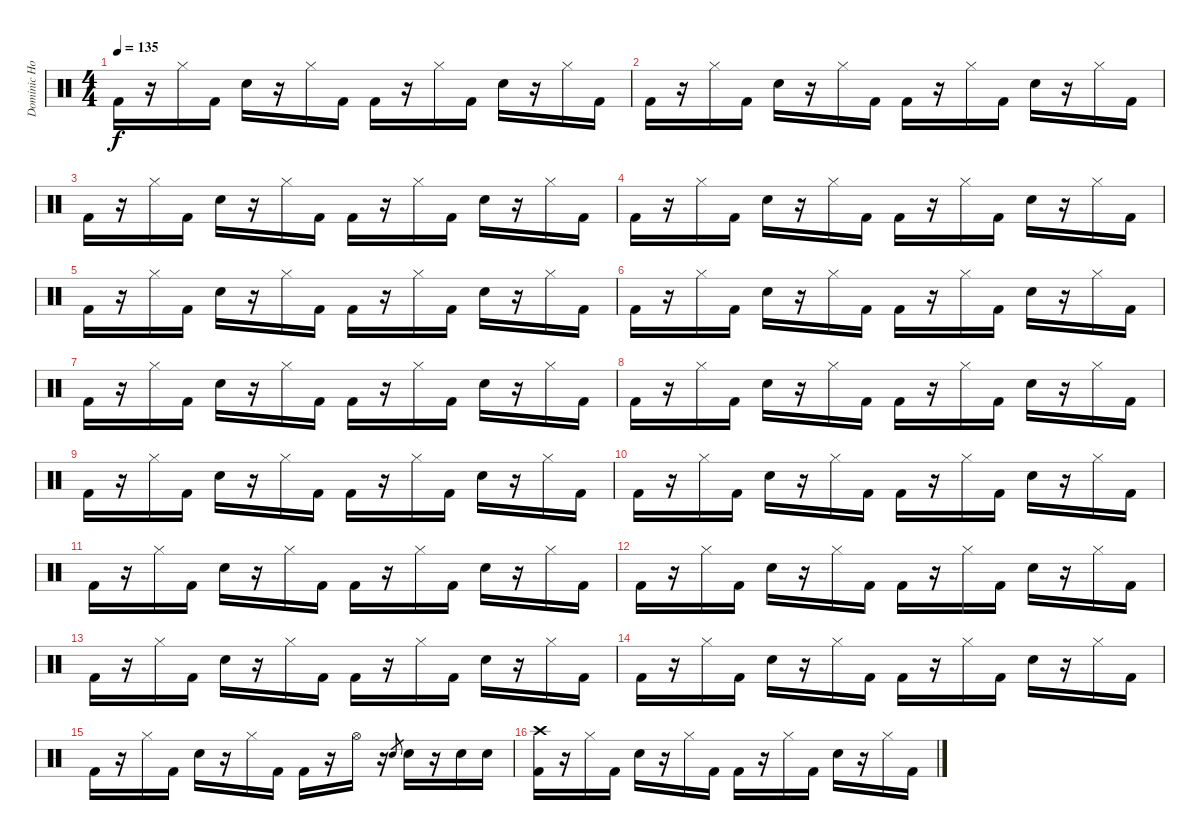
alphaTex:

\track ("Dominic Howard (Drums)" "Dominic Ho") {instrument percussion}
\staff {score}
\articulation defaults
\ts (4 4)
\tempo 135
\clef neutral
\ks c "Kick (hit) 2".16{dy f}
r.16 "Hi-Hat (closed)".16 "Kick (hit) 2".16 "Electric Snare (hit)".16 r.16 "Hi-Hat (closed)".16 "Kick (hit) 2".16 "Kick (hit) 2".16 r.16 "Hi-Hat (closed)".16 "Kick (hit) 2".16 "Electric Snare (hit)".16 r.16 "Hi-Hat (closed)".16 "Kick (hit) 2".16 |
"Kick (hit) 2".16 r.16 "Hi-Hat (closed)".16 "Kick (hit) 2".16 "Electric Snare (hit)".16 r.16 "Hi-Hat (closed)".16 "Kick (hit) 2".16 "Kick (hit) 2".16 r.16 "Hi-Hat (closed)".16 "Kick (hit) 2".16 "Electric Snare (hit)".16 r.16 "Hi-Hat (closed)".16 "Kick (hit) 2".16 |
"Kick (hit) 2".16 r.16 "Hi-Hat (closed)".16 "Kick (hit) 2".16 "Electric Snare (hit)".16 r.16 "Hi-Hat (closed)".16 "Kick (hit) 2".16 "Kick (hit) 2".16 r.16 "Hi-Hat (closed)".16 "Kick (hit) 2".16 "Electric Snare (hit)".16 r.16 "Hi-Hat (closed)".16 "Kick (hit) 2".16 |
"Kick (hit) 2".16 r.16 "Hi-Hat (closed)".16 "Kick (hit) 2".16 "Electric Snare (hit)".16 r.16 "Hi-Hat (closed)".16 "Kick (hit) 2".16 "Kick (hit) 2".16 r.16 "Hi-Hat (closed)".16 "Kick (hit) 2".16 "Electric Snare (hit)".16 r.16 "Hi-Hat (closed)".16 "Kick (hit) 2".16 |
"Kick (hit) 2".16 r.16 "Hi-Hat (closed)".16 "Kick (hit) 2".16 "Electric Snare (hit)".16 r.16 "Hi-Hat (closed)".16 "Kick (hit) 2".16 "Kick (hit) 2".16 r.16 "Hi-Hat (closed)".16 "Kick (hit) 2".16 "Electric Snare (hit)".16 r.16 "Hi-Hat (closed)".16 "Kick (hit) 2".16 |
"Kick (hit) 2".16 r.16 "Hi-Hat (closed)".16 "Kick (hit) 2".16 "Electric Snare (hit)".16 r.16 "Hi-Hat (closed)".16 "Kick (hit) 2".16 "Kick (hit) 2".16 r.16 "Hi-Hat (closed)".16 "Kick (hit) 2".16 "Electric Snare (hit)".16 r.16 "Hi-Hat (closed)".16 "Kick (hit) 2".16 |
"Kick (hit) 2".16 r.16 "Hi-Hat (closed)".16 "Kick (hit) 2".16 "Electric Snare (hit)".16 r.16 "Hi-Hat (closed)".16 "Kick (hit) 2".16 "Kick (hit) 2".16 r.16 "Hi-Hat (closed)".16 "Kick (hit) 2".16 "Electric Snare (hit)".16 r.16 "Hi-Hat (closed)".16 "Kick (hit) 2".16 |
"Kick (hit) 2".16 r.16 "Hi-Hat (closed)".16 "Kick (hit) 2".16 "Electric Snare (hit)".16 r.16 "Hi-Hat (closed)".16 "Kick (hit) 2".16 "Kick (hit) 2".16 r.16 "Hi-Hat (closed)".16 "Kick (hit) 2".16 "Electric Snare (hit)".16 r.16 "Hi-Hat (closed)".16 "Kick (hit) 2".16 |
"Kick (hit) 2".16 r.16 "Hi-Hat (closed)".16 "Kick (hit) 2".16 "Electric Snare (hit)".16 r.16 "Hi-Hat (closed)".16 "Kick (hit) 2".16 "Kick (hit) 2".16 r.16 "Hi-Hat (closed)".16 "Kick (hit) 2".16 "Electric Snare (hit)".16 r.16 "Hi-Hat (closed)".16 "Kick (hit) 2".16 |
"Kick (hit) 2".16 r.16 "Hi-Hat (closed)".16 "Kick (hit) 2".16 "Electric Snare (hit)".16 r.16 "Hi-Hat (closed)".16 "Kick (hit) 2".16 "Kick (hit) 2".16 r.16 "Hi-Hat (closed)".16 "Kick (hit) 2".16 "Electric Snare (hit)".16 r.16 "Hi-Hat (closed)".16 "Kick (hit) 2".16 |
"Kick (hit) 2".16 r.16 "Hi-Hat (closed)".16 "Kick (hit) 2".16 "Electric Snare (hit)".16 r.16 "Hi-Hat (closed)".16 "Kick (hit) 2".16 "Kick (hit) 2".16 r.16 "Hi-Hat (closed)".16 "Kick (hit) 2".16 "Electric Snare (hit)".16 r.16 "Hi-Hat (closed)".16 "Kick (hit) 2".16 |
"Kick (hit) 2".16 r.16 "Hi-Hat (closed)".16 "Kick (hit) 2".16 "Electric Snare (hit)".16 r.16 "Hi-Hat (closed)".16 "Kick (hit) 2".16 "Kick (hit) 2".16 r.16 "Hi-Hat (closed)".16 "Kick (hit) 2".16 "Electric Snare (hit)".16 r.16 "Hi-Hat (closed)".16 "Kick (hit) 2".16 |
"Kick (hit) 2".16 r.16 "Hi-Hat (closed)".16 "Kick (hit) 2".16 "Electric Snare (hit)".16 r.16 "Hi-Hat (closed)".16 "Kick (hit) 2".16 "Kick (hit) 2".16 r.16 "Hi-Hat (closed)".16 "Kick (hit) 2".16 "Electric Snare (hit)".16 r.16 "Hi-Hat (closed)".16 "Kick (hit) 2".16 |
"Kick (hit) 2".16 r.16 "Hi-Hat (closed)".16 "Kick (hit) 2".16 "Electric Snare (hit)".16 r.16 "Hi-Hat (closed)".16 "Kick (hit) 2".16 "Kick (hit) 2".16 r.16 "Hi-Hat (closed)".16 "Kick (hit) 2".16 "Electric Snare (hit)".16 r.16 "Hi-Hat (closed)".16 "Kick (hit) 2".16 |
"Kick (hit) 2".16 r.16 "Hi-Hat (closed)".16 "Kick (hit) 2".16 "Electric Snare (hit)".16 r.16 "Hi-Hat (closed)".16 "Kick (hit) 2".16 "Kick (hit) 2".16 r.16 "Hi-Hat (open)".16 r.16 "Electric Snare (hit)".8{gr} "Electric Snare (hit)".16 r.16 "Electric Snare (hit)".16 "Electric Snare (hit)".16 |
("Crash high (hit)" "Kick (hit) 2").16 r.16 "Hi-Hat (closed)".16 "Kick (hit) 2".16 "Electric Snare (hit)".16 r.16 "Hi-Hat (closed)".16 "Kick (hit) 2".16 "Kick (hit) 2".16 r.16 "Hi-Hat (closed)".16 "Kick (hit) 2".16 "Electric Snare (hit)".16 r.16 "Hi-Hat (closed)".16 "Kick (hit) 2".16
